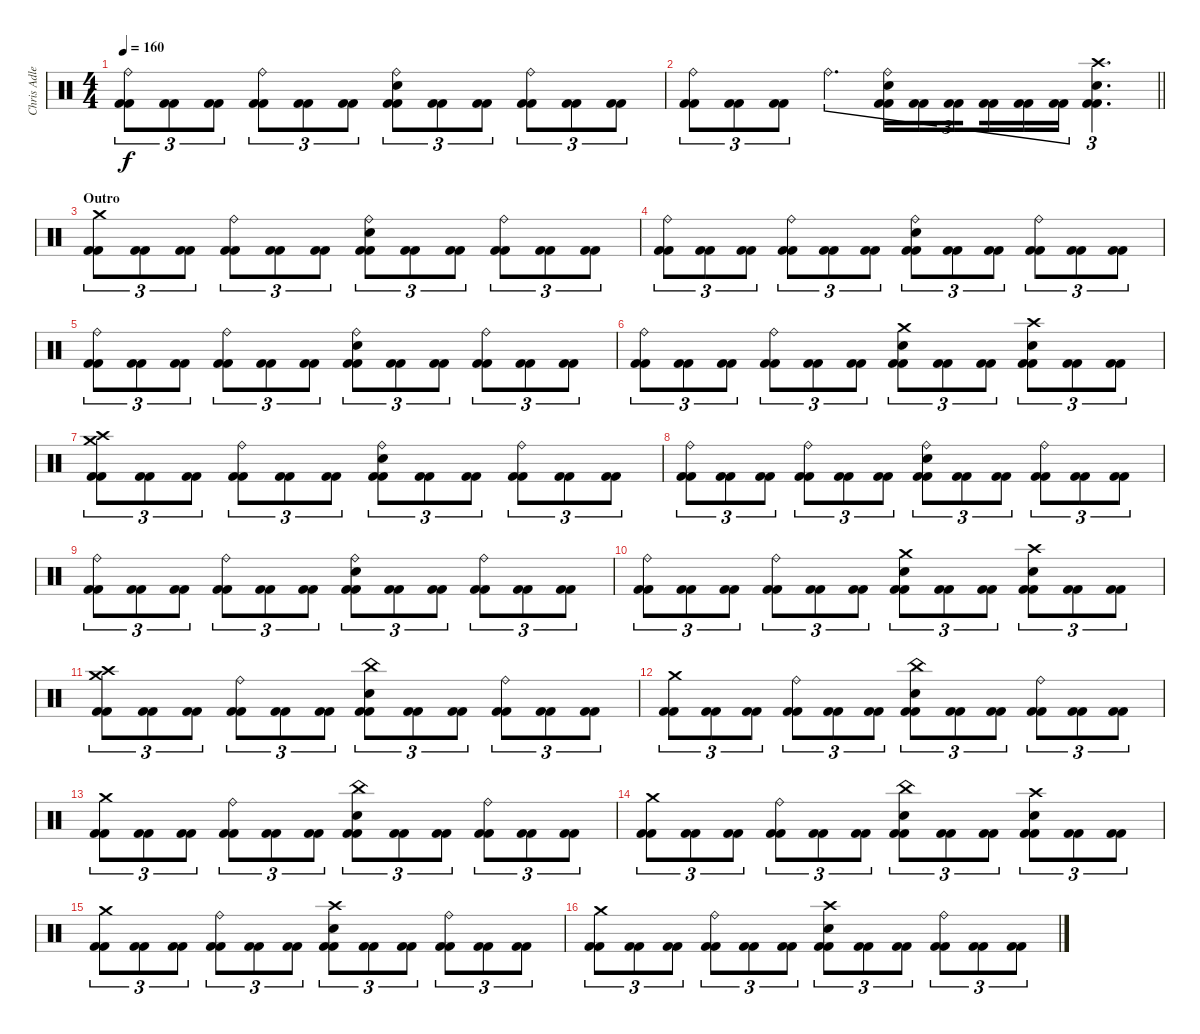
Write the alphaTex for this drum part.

\track ("Chris Adler" "Chris Adle") {instrument percussion}
\staff {score}
\articulation defaults
\ts (4 4)
\tempo 160
\clef neutral
\ks c
("Ride (bell)" "Kick (hit) 2" "Kick (hit) 2").8{tu (3 2) dy f} ("Kick (hit) 2" "Kick (hit) 2").8{tu (3 2)} ("Kick (hit) 2" "Kick (hit) 2").8{tu (3 2)} ("Ride (bell)" "Kick (hit) 2" "Kick (hit) 2").8{tu (3 2)} ("Kick (hit) 2" "Kick (hit) 2").8{tu (3 2)} ("Kick (hit) 2" "Kick (hit) 2").8{tu (3 2)} ("Ride (bell)" "Electric Snare (hit)" "Kick (hit) 2" "Kick (hit) 2").8{tu (3 2)} ("Kick (hit) 2" "Kick (hit) 2").8{tu (3 2)} ("Kick (hit) 2" "Kick (hit) 2").8{tu (3 2)} ("Ride (bell)" "Kick (hit) 2" "Kick (hit) 2").8{tu (3 2)} ("Kick (hit) 2" "Kick (hit) 2").8{tu (3 2)} ("Kick (hit) 2" "Kick (hit) 2").8{tu (3 2)} |
\barLineRight lightlight
("Ride (bell)" "Kick (hit) 2" "Kick (hit) 2").8{tu (3 2)} ("Kick (hit) 2" "Kick (hit) 2").8{tu (3 2)} ("Kick (hit) 2" "Kick (hit) 2").8{tu (3 2)} "Ride (bell)".4{d tu (3 2)} ("Ride (bell)" "Electric Snare (hit)" "Kick (hit) 2" "Kick (hit) 2").16{tu (3 2)} ("Kick (hit) 2" "Kick (hit) 2").16{tu (3 2)} ("Kick (hit) 2" "Kick (hit) 2").16{tu (3 2) beam splitsecondary} ("Kick (hit) 2" "Kick (hit) 2").16{tu (3 2)} ("Kick (hit) 2" "Kick (hit) 2").16{tu (3 2)} ("Kick (hit) 2" "Kick (hit) 2").16{tu (3 2)} ("Crash high (hit)" "Electric Snare (hit)" "Kick (hit) 2" "Kick (hit) 2").4{d tu (3 2)} |
\section ("" "Outro")
("Crash medium (hit)" "Kick (hit) 2" "Kick (hit) 2").8{tu (3 2)} ("Kick (hit) 2" "Kick (hit) 2").8{tu (3 2)} ("Kick (hit) 2" "Kick (hit) 2").8{tu (3 2)} ("Ride (bell)" "Kick (hit) 2" "Kick (hit) 2").8{tu (3 2)} ("Kick (hit) 2" "Kick (hit) 2").8{tu (3 2)} ("Kick (hit) 2" "Kick (hit) 2").8{tu (3 2)} ("Ride (bell)" "Electric Snare (hit)" "Kick (hit) 2" "Kick (hit) 2").8{tu (3 2)} ("Kick (hit) 2" "Kick (hit) 2").8{tu (3 2)} ("Kick (hit) 2" "Kick (hit) 2").8{tu (3 2)} ("Ride (bell)" "Kick (hit) 2" "Kick (hit) 2").8{tu (3 2)} ("Kick (hit) 2" "Kick (hit) 2").8{tu (3 2)} ("Kick (hit) 2" "Kick (hit) 2").8{tu (3 2)} |
("Ride (bell)" "Kick (hit) 2" "Kick (hit) 2").8{tu (3 2)} ("Kick (hit) 2" "Kick (hit) 2").8{tu (3 2)} ("Kick (hit) 2" "Kick (hit) 2").8{tu (3 2)} ("Ride (bell)" "Kick (hit) 2" "Kick (hit) 2").8{tu (3 2)} ("Kick (hit) 2" "Kick (hit) 2").8{tu (3 2)} ("Kick (hit) 2" "Kick (hit) 2").8{tu (3 2)} ("Ride (bell)" "Electric Snare (hit)" "Kick (hit) 2" "Kick (hit) 2").8{tu (3 2)} ("Kick (hit) 2" "Kick (hit) 2").8{tu (3 2)} ("Kick (hit) 2" "Kick (hit) 2").8{tu (3 2)} ("Ride (bell)" "Kick (hit) 2" "Kick (hit) 2").8{tu (3 2)} ("Kick (hit) 2" "Kick (hit) 2").8{tu (3 2)} ("Kick (hit) 2" "Kick (hit) 2").8{tu (3 2)} |
("Ride (bell)" "Kick (hit) 2" "Kick (hit) 2").8{tu (3 2)} ("Kick (hit) 2" "Kick (hit) 2").8{tu (3 2)} ("Kick (hit) 2" "Kick (hit) 2").8{tu (3 2)} ("Ride (bell)" "Kick (hit) 2" "Kick (hit) 2").8{tu (3 2)} ("Kick (hit) 2" "Kick (hit) 2").8{tu (3 2)} ("Kick (hit) 2" "Kick (hit) 2").8{tu (3 2)} ("Ride (bell)" "Electric Snare (hit)" "Kick (hit) 2" "Kick (hit) 2").8{tu (3 2)} ("Kick (hit) 2" "Kick (hit) 2").8{tu (3 2)} ("Kick (hit) 2" "Kick (hit) 2").8{tu (3 2)} ("Ride (bell)" "Kick (hit) 2" "Kick (hit) 2").8{tu (3 2)} ("Kick (hit) 2" "Kick (hit) 2").8{tu (3 2)} ("Kick (hit) 2" "Kick (hit) 2").8{tu (3 2)} |
("Ride (bell)" "Kick (hit) 2" "Kick (hit) 2").8{tu (3 2)} ("Kick (hit) 2" "Kick (hit) 2").8{tu (3 2)} ("Kick (hit) 2" "Kick (hit) 2").8{tu (3 2)} ("Ride (bell)" "Kick (hit) 2" "Kick (hit) 2").8{tu (3 2)} ("Kick (hit) 2" "Kick (hit) 2").8{tu (3 2)} ("Kick (hit) 2" "Kick (hit) 2").8{tu (3 2)} ("Crash medium (hit)" "Electric Snare (hit)" "Kick (hit) 2" "Kick (hit) 2").8{tu (3 2)} ("Kick (hit) 2" "Kick (hit) 2").8{tu (3 2)} ("Kick (hit) 2" "Kick (hit) 2").8{tu (3 2)} ("Crash high (hit)" "Electric Snare (hit)" "Kick (hit) 2" "Kick (hit) 2").8{tu (3 2)} ("Kick (hit) 2" "Kick (hit) 2").8{tu (3 2)} ("Kick (hit) 2" "Kick (hit) 2").8{tu (3 2)} |
("Crash medium (hit)" "Crash high (hit)" "Kick (hit) 2" "Kick (hit) 2").8{tu (3 2)} ("Kick (hit) 2" "Kick (hit) 2").8{tu (3 2)} ("Kick (hit) 2" "Kick (hit) 2").8{tu (3 2)} ("Ride (bell)" "Kick (hit) 2" "Kick (hit) 2").8{tu (3 2)} ("Kick (hit) 2" "Kick (hit) 2").8{tu (3 2)} ("Kick (hit) 2" "Kick (hit) 2").8{tu (3 2)} ("Ride (bell)" "Electric Snare (hit)" "Kick (hit) 2" "Kick (hit) 2").8{tu (3 2)} ("Kick (hit) 2" "Kick (hit) 2").8{tu (3 2)} ("Kick (hit) 2" "Kick (hit) 2").8{tu (3 2)} ("Ride (bell)" "Kick (hit) 2" "Kick (hit) 2").8{tu (3 2)} ("Kick (hit) 2" "Kick (hit) 2").8{tu (3 2)} ("Kick (hit) 2" "Kick (hit) 2").8{tu (3 2)} |
("Ride (bell)" "Kick (hit) 2" "Kick (hit) 2").8{tu (3 2)} ("Kick (hit) 2" "Kick (hit) 2").8{tu (3 2)} ("Kick (hit) 2" "Kick (hit) 2").8{tu (3 2)} ("Ride (bell)" "Kick (hit) 2" "Kick (hit) 2").8{tu (3 2)} ("Kick (hit) 2" "Kick (hit) 2").8{tu (3 2)} ("Kick (hit) 2" "Kick (hit) 2").8{tu (3 2)} ("Ride (bell)" "Electric Snare (hit)" "Kick (hit) 2" "Kick (hit) 2").8{tu (3 2)} ("Kick (hit) 2" "Kick (hit) 2").8{tu (3 2)} ("Kick (hit) 2" "Kick (hit) 2").8{tu (3 2)} ("Ride (bell)" "Kick (hit) 2" "Kick (hit) 2").8{tu (3 2)} ("Kick (hit) 2" "Kick (hit) 2").8{tu (3 2)} ("Kick (hit) 2" "Kick (hit) 2").8{tu (3 2)} |
("Ride (bell)" "Kick (hit) 2" "Kick (hit) 2").8{tu (3 2)} ("Kick (hit) 2" "Kick (hit) 2").8{tu (3 2)} ("Kick (hit) 2" "Kick (hit) 2").8{tu (3 2)} ("Ride (bell)" "Kick (hit) 2" "Kick (hit) 2").8{tu (3 2)} ("Kick (hit) 2" "Kick (hit) 2").8{tu (3 2)} ("Kick (hit) 2" "Kick (hit) 2").8{tu (3 2)} ("Ride (bell)" "Electric Snare (hit)" "Kick (hit) 2" "Kick (hit) 2").8{tu (3 2)} ("Kick (hit) 2" "Kick (hit) 2").8{tu (3 2)} ("Kick (hit) 2" "Kick (hit) 2").8{tu (3 2)} ("Ride (bell)" "Kick (hit) 2" "Kick (hit) 2").8{tu (3 2)} ("Kick (hit) 2" "Kick (hit) 2").8{tu (3 2)} ("Kick (hit) 2" "Kick (hit) 2").8{tu (3 2)} |
("Ride (bell)" "Kick (hit) 2" "Kick (hit) 2").8{tu (3 2)} ("Kick (hit) 2" "Kick (hit) 2").8{tu (3 2)} ("Kick (hit) 2" "Kick (hit) 2").8{tu (3 2)} ("Ride (bell)" "Kick (hit) 2" "Kick (hit) 2").8{tu (3 2)} ("Kick (hit) 2" "Kick (hit) 2").8{tu (3 2)} ("Kick (hit) 2" "Kick (hit) 2").8{tu (3 2)} ("Crash medium (hit)" "Electric Snare (hit)" "Kick (hit) 2" "Kick (hit) 2").8{tu (3 2)} ("Kick (hit) 2" "Kick (hit) 2").8{tu (3 2)} ("Kick (hit) 2" "Kick (hit) 2").8{tu (3 2)} ("Crash high (hit)" "Electric Snare (hit)" "Kick (hit) 2" "Kick (hit) 2").8{tu (3 2)} ("Kick (hit) 2" "Kick (hit) 2").8{tu (3 2)} ("Kick (hit) 2" "Kick (hit) 2").8{tu (3 2)} |
("Crash medium (hit)" "Crash high (hit)" "Kick (hit) 2" "Kick (hit) 2").8{tu (3 2)} ("Kick (hit) 2" "Kick (hit) 2").8{tu (3 2)} ("Kick (hit) 2" "Kick (hit) 2").8{tu (3 2)} ("Ride (bell)" "Kick (hit) 2" "Kick (hit) 2").8{tu (3 2)} ("Kick (hit) 2" "Kick (hit) 2").8{tu (3 2)} ("Kick (hit) 2" "Kick (hit) 2").8{tu (3 2)} ("China (hit)" "Electric Snare (hit)" "Kick (hit) 2" "Kick (hit) 2").8{tu (3 2)} ("Kick (hit) 2" "Kick (hit) 2").8{tu (3 2)} ("Kick (hit) 2" "Kick (hit) 2").8{tu (3 2)} ("Ride (bell)" "Kick (hit) 2" "Kick (hit) 2").8{tu (3 2)} ("Kick (hit) 2" "Kick (hit) 2").8{tu (3 2)} ("Kick (hit) 2" "Kick (hit) 2").8{tu (3 2)} |
("Crash medium (hit)" "Kick (hit) 2" "Kick (hit) 2").8{tu (3 2)} ("Kick (hit) 2" "Kick (hit) 2").8{tu (3 2)} ("Kick (hit) 2" "Kick (hit) 2").8{tu (3 2)} ("Ride (bell)" "Kick (hit) 2" "Kick (hit) 2").8{tu (3 2)} ("Kick (hit) 2" "Kick (hit) 2").8{tu (3 2)} ("Kick (hit) 2" "Kick (hit) 2").8{tu (3 2)} ("China (hit)" "Electric Snare (hit)" "Kick (hit) 2" "Kick (hit) 2").8{tu (3 2)} ("Kick (hit) 2" "Kick (hit) 2").8{tu (3 2)} ("Kick (hit) 2" "Kick (hit) 2").8{tu (3 2)} ("Ride (bell)" "Kick (hit) 2" "Kick (hit) 2").8{tu (3 2)} ("Kick (hit) 2" "Kick (hit) 2").8{tu (3 2)} ("Kick (hit) 2" "Kick (hit) 2").8{tu (3 2)} |
("Crash medium (hit)" "Kick (hit) 2" "Kick (hit) 2").8{tu (3 2)} ("Kick (hit) 2" "Kick (hit) 2").8{tu (3 2)} ("Kick (hit) 2" "Kick (hit) 2").8{tu (3 2)} ("Ride (bell)" "Kick (hit) 2" "Kick (hit) 2").8{tu (3 2)} ("Kick (hit) 2" "Kick (hit) 2").8{tu (3 2)} ("Kick (hit) 2" "Kick (hit) 2").8{tu (3 2)} ("China (hit)" "Electric Snare (hit)" "Kick (hit) 2" "Kick (hit) 2").8{tu (3 2)} ("Kick (hit) 2" "Kick (hit) 2").8{tu (3 2)} ("Kick (hit) 2" "Kick (hit) 2").8{tu (3 2)} ("Ride (bell)" "Kick (hit) 2" "Kick (hit) 2").8{tu (3 2)} ("Kick (hit) 2" "Kick (hit) 2").8{tu (3 2)} ("Kick (hit) 2" "Kick (hit) 2").8{tu (3 2)} |
("Crash medium (hit)" "Kick (hit) 2" "Kick (hit) 2").8{tu (3 2)} ("Kick (hit) 2" "Kick (hit) 2").8{tu (3 2)} ("Kick (hit) 2" "Kick (hit) 2").8{tu (3 2)} ("Ride (bell)" "Kick (hit) 2" "Kick (hit) 2").8{tu (3 2)} ("Kick (hit) 2" "Kick (hit) 2").8{tu (3 2)} ("Kick (hit) 2" "Kick (hit) 2").8{tu (3 2)} ("China (hit)" "Electric Snare (hit)" "Kick (hit) 2" "Kick (hit) 2").8{tu (3 2)} ("Kick (hit) 2" "Kick (hit) 2").8{tu (3 2)} ("Kick (hit) 2" "Kick (hit) 2").8{tu (3 2)} ("Crash high (hit)" "Electric Snare (hit)" "Kick (hit) 2" "Kick (hit) 2").8{tu (3 2)} ("Kick (hit) 2" "Kick (hit) 2").8{tu (3 2)} ("Kick (hit) 2" "Kick (hit) 2").8{tu (3 2)} |
("Crash medium (hit)" "Kick (hit) 2" "Kick (hit) 2").8{tu (3 2)} ("Kick (hit) 2" "Kick (hit) 2").8{tu (3 2)} ("Kick (hit) 2" "Kick (hit) 2").8{tu (3 2)} ("Ride (bell)" "Kick (hit) 2" "Kick (hit) 2").8{tu (3 2)} ("Kick (hit) 2" "Kick (hit) 2").8{tu (3 2)} ("Kick (hit) 2" "Kick (hit) 2").8{tu (3 2)} ("Crash high (hit)" "Electric Snare (hit)" "Kick (hit) 2" "Kick (hit) 2").8{tu (3 2)} ("Kick (hit) 2" "Kick (hit) 2").8{tu (3 2)} ("Kick (hit) 2" "Kick (hit) 2").8{tu (3 2)} ("Ride (bell)" "Kick (hit) 2" "Kick (hit) 2").8{tu (3 2)} ("Kick (hit) 2" "Kick (hit) 2").8{tu (3 2)} ("Kick (hit) 2" "Kick (hit) 2").8{tu (3 2)} |
("Crash medium (hit)" "Kick (hit) 2" "Kick (hit) 2").8{tu (3 2)} ("Kick (hit) 2" "Kick (hit) 2").8{tu (3 2)} ("Kick (hit) 2" "Kick (hit) 2").8{tu (3 2)} ("Ride (bell)" "Kick (hit) 2" "Kick (hit) 2").8{tu (3 2)} ("Kick (hit) 2" "Kick (hit) 2").8{tu (3 2)} ("Kick (hit) 2" "Kick (hit) 2").8{tu (3 2)} ("Crash high (hit)" "Electric Snare (hit)" "Kick (hit) 2" "Kick (hit) 2").8{tu (3 2)} ("Kick (hit) 2" "Kick (hit) 2").8{tu (3 2)} ("Kick (hit) 2" "Kick (hit) 2").8{tu (3 2)} ("Ride (bell)" "Kick (hit) 2" "Kick (hit) 2").8{tu (3 2)} ("Kick (hit) 2" "Kick (hit) 2").8{tu (3 2)} ("Kick (hit) 2" "Kick (hit) 2").8{tu (3 2)}
